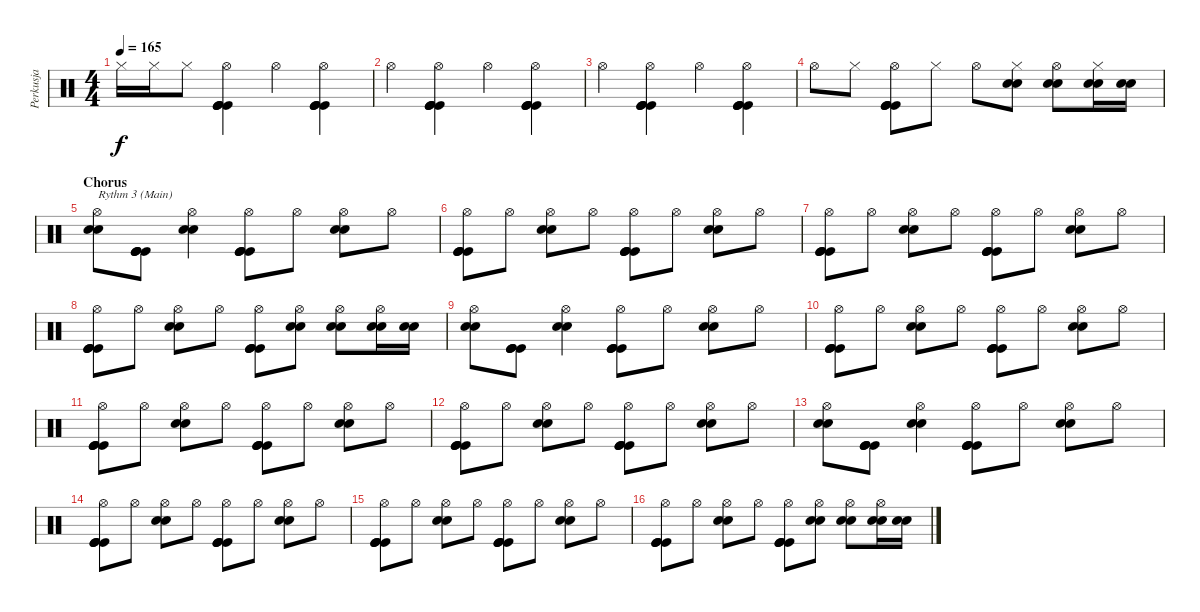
\track ("Perkusja" "Perkusja") {instrument percussion}
\staff {score}
\articulation defaults
\ts (4 4)
\tempo 165
\clef neutral
\ks c "Hi-Hat (closed)".16{dy f} "Hi-Hat (closed)".16 "Hi-Hat (closed)".8
("Hi-Hat (open)" "Kick (hit)" "Kick (hit)" "Kick (hit)" "Kick (hit)").4 "Hi-Hat (open)".4 ("Hi-Hat (open)" "Kick (hit)" "Kick (hit)" "Kick (hit)" "Kick (hit)").4 |
"Hi-Hat (open)".4 ("Hi-Hat (open)" "Kick (hit)" "Kick (hit)" "Kick (hit)" "Kick (hit)").4 "Hi-Hat (open)".4 ("Hi-Hat (open)" "Kick (hit)" "Kick (hit)" "Kick (hit)" "Kick (hit)").4 |
"Hi-Hat (open)".4 ("Hi-Hat (open)" "Kick (hit)" "Kick (hit)" "Kick (hit)" "Kick (hit)").4 "Hi-Hat (open)".4 ("Hi-Hat (open)" "Kick (hit)" "Kick (hit)" "Kick (hit)" "Kick (hit)").4 |
"Hi-Hat (open)".8 "Hi-Hat (closed)".8 ("Hi-Hat (open)" "Kick (hit)" "Kick (hit)" "Kick (hit)" "Kick (hit)").8 "Hi-Hat (closed)".8 "Hi-Hat (open)".8 ("Hi-Hat (closed)" "Snare (hit) 2" "Snare (hit) 2").8 ("Hi-Hat (open)" "Snare (hit) 2" "Snare (hit) 2").8 ("Hi-Hat (closed)" "Snare (hit) 2" "Snare (hit) 2").16 ("Snare (hit) 2" "Snare (hit) 2").16 |
\section ("" "Chorus")
("Hi-Hat (open)" "Snare (hit) 2" "Snare (hit) 2").8{txt "Rythm 3 (Main)"} ("Kick (hit)" "Kick (hit)" "Kick (hit)" "Kick (hit)").8 ("Hi-Hat (open)" "Snare (hit) 2" "Snare (hit) 2").4 ("Hi-Hat (open)" "Kick (hit)" "Kick (hit)" "Kick (hit)" "Kick (hit)").8 "Hi-Hat (open)".8 ("Hi-Hat (open)" "Snare (hit) 2" "Snare (hit) 2").8 "Hi-Hat (open)".8 |
("Hi-Hat (open)" "Kick (hit)" "Kick (hit)" "Kick (hit)" "Kick (hit)").8 "Hi-Hat (open)".8 ("Hi-Hat (open)" "Snare (hit) 2" "Snare (hit) 2").8 "Hi-Hat (open)".8 ("Hi-Hat (open)" "Kick (hit)" "Kick (hit)" "Kick (hit)" "Kick (hit)").8 "Hi-Hat (open)".8 ("Hi-Hat (open)" "Snare (hit) 2" "Snare (hit) 2").8 "Hi-Hat (open)".8 |
("Hi-Hat (open)" "Kick (hit)" "Kick (hit)" "Kick (hit)" "Kick (hit)").8 "Hi-Hat (open)".8 ("Hi-Hat (open)" "Snare (hit) 2" "Snare (hit) 2").8 "Hi-Hat (open)".8 ("Hi-Hat (open)" "Kick (hit)" "Kick (hit)" "Kick (hit)" "Kick (hit)").8 "Hi-Hat (open)".8 ("Hi-Hat (open)" "Snare (hit) 2" "Snare (hit) 2").8 "Hi-Hat (open)".8 |
("Hi-Hat (open)" "Kick (hit)" "Kick (hit)" "Kick (hit)" "Kick (hit)").8 "Hi-Hat (open)".8 ("Hi-Hat (open)" "Snare (hit) 2" "Snare (hit) 2").8 "Hi-Hat (open)".8 ("Hi-Hat (open)" "Kick (hit)" "Kick (hit)" "Kick (hit)" "Kick (hit)").8 ("Hi-Hat (open)" "Snare (hit) 2" "Snare (hit) 2").8 ("Hi-Hat (open)" "Snare (hit) 2" "Snare (hit) 2").8 ("Hi-Hat (open)" "Snare (hit) 2" "Snare (hit) 2").16 ("Snare (hit) 2" "Snare (hit) 2").16 |
("Hi-Hat (open)" "Snare (hit) 2" "Snare (hit) 2").8 ("Kick (hit)" "Kick (hit)" "Kick (hit)" "Kick (hit)").8 ("Hi-Hat (open)" "Snare (hit) 2" "Snare (hit) 2").4 ("Hi-Hat (open)" "Kick (hit)" "Kick (hit)" "Kick (hit)" "Kick (hit)").8 "Hi-Hat (open)".8 ("Hi-Hat (open)" "Snare (hit) 2" "Snare (hit) 2").8 "Hi-Hat (open)".8 |
("Hi-Hat (open)" "Kick (hit)" "Kick (hit)" "Kick (hit)" "Kick (hit)").8 "Hi-Hat (open)".8 ("Hi-Hat (open)" "Snare (hit) 2" "Snare (hit) 2").8 "Hi-Hat (open)".8 ("Hi-Hat (open)" "Kick (hit)" "Kick (hit)" "Kick (hit)" "Kick (hit)").8 "Hi-Hat (open)".8 ("Hi-Hat (open)" "Snare (hit) 2" "Snare (hit) 2").8 "Hi-Hat (open)".8 |
("Hi-Hat (open)" "Kick (hit)" "Kick (hit)" "Kick (hit)" "Kick (hit)").8 "Hi-Hat (open)".8 ("Hi-Hat (open)" "Snare (hit) 2" "Snare (hit) 2").8 "Hi-Hat (open)".8 ("Hi-Hat (open)" "Kick (hit)" "Kick (hit)" "Kick (hit)" "Kick (hit)").8 "Hi-Hat (open)".8 ("Hi-Hat (open)" "Snare (hit) 2" "Snare (hit) 2").8 "Hi-Hat (open)".8 |
("Hi-Hat (open)" "Kick (hit)" "Kick (hit)" "Kick (hit)" "Kick (hit)").8 "Hi-Hat (open)".8 ("Hi-Hat (open)" "Snare (hit) 2" "Snare (hit) 2").8 "Hi-Hat (open)".8 ("Hi-Hat (open)" "Kick (hit)" "Kick (hit)" "Kick (hit)" "Kick (hit)").8 "Hi-Hat (open)".8 ("Hi-Hat (open)" "Snare (hit) 2" "Snare (hit) 2").8 "Hi-Hat (open)".8 |
("Hi-Hat (open)" "Snare (hit) 2" "Snare (hit) 2").8 ("Kick (hit)" "Kick (hit)" "Kick (hit)" "Kick (hit)").8 ("Hi-Hat (open)" "Snare (hit) 2" "Snare (hit) 2").4 ("Hi-Hat (open)" "Kick (hit)" "Kick (hit)" "Kick (hit)" "Kick (hit)").8 "Hi-Hat (open)".8 ("Hi-Hat (open)" "Snare (hit) 2" "Snare (hit) 2").8 "Hi-Hat (open)".8 |
("Hi-Hat (open)" "Kick (hit)" "Kick (hit)" "Kick (hit)" "Kick (hit)").8 "Hi-Hat (open)".8 ("Hi-Hat (open)" "Snare (hit) 2" "Snare (hit) 2").8 "Hi-Hat (open)".8 ("Hi-Hat (open)" "Kick (hit)" "Kick (hit)" "Kick (hit)" "Kick (hit)").8 "Hi-Hat (open)".8 ("Hi-Hat (open)" "Snare (hit) 2" "Snare (hit) 2").8 "Hi-Hat (open)".8 |
("Hi-Hat (open)" "Kick (hit)" "Kick (hit)" "Kick (hit)" "Kick (hit)").8 "Hi-Hat (open)".8 ("Hi-Hat (open)" "Snare (hit) 2" "Snare (hit) 2").8 "Hi-Hat (open)".8 ("Hi-Hat (open)" "Kick (hit)" "Kick (hit)" "Kick (hit)" "Kick (hit)").8 "Hi-Hat (open)".8 ("Hi-Hat (open)" "Snare (hit) 2" "Snare (hit) 2").8 "Hi-Hat (open)".8 |
("Hi-Hat (open)" "Kick (hit)" "Kick (hit)" "Kick (hit)" "Kick (hit)").8 "Hi-Hat (open)".8 ("Hi-Hat (open)" "Snare (hit) 2" "Snare (hit) 2").8 "Hi-Hat (open)".8 ("Hi-Hat (open)" "Kick (hit)" "Kick (hit)" "Kick (hit)" "Kick (hit)").8 ("Hi-Hat (open)" "Snare (hit) 2" "Snare (hit) 2").8 ("Hi-Hat (open)" "Snare (hit) 2" "Snare (hit) 2").8 ("Hi-Hat (open)" "Snare (hit) 2" "Snare (hit) 2").16 ("Snare (hit) 2" "Snare (hit) 2").16
